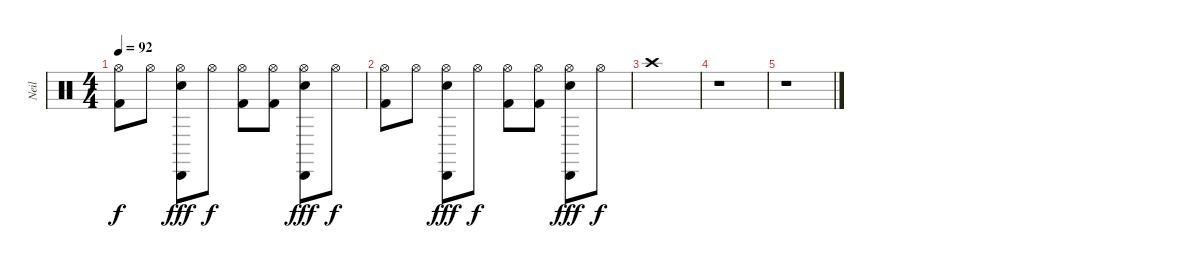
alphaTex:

\track ("Neil" "Neil") {instrument percussion}
\staff {score}
\articulation defaults
\ts (4 4)
\tempo 92
\clef neutral
\ks c
("Hi-Hat (open)" "Kick (hit) 2").8{dy f} "Hi-Hat (open)".8 ("Hi-Hat (open)" "Cabasa (hit)" "Electric Snare (hit)").8{dy fff} "Hi-Hat (open)".8{dy f} ("Hi-Hat (open)" "Kick (hit) 2").8 ("Hi-Hat (open)" "Kick (hit) 2").8 ("Hi-Hat (open)" "Cabasa (hit)" "Electric Snare (hit)").8{dy fff} "Hi-Hat (open)".8{dy f} |
("Hi-Hat (open)" "Kick (hit) 2").8 "Hi-Hat (open)".8 ("Hi-Hat (open)" "Cabasa (hit)" "Electric Snare (hit)").8{dy fff} "Hi-Hat (open)".8{dy f} ("Hi-Hat (open)" "Kick (hit) 2").8 ("Hi-Hat (open)" "Kick (hit) 2").8 ("Hi-Hat (open)" "Cabasa (hit)" "Electric Snare (hit)").8{dy fff} "Hi-Hat (open)".8{dy f} |
"Crash high (hit)".1 |
r.1 |
r.1
